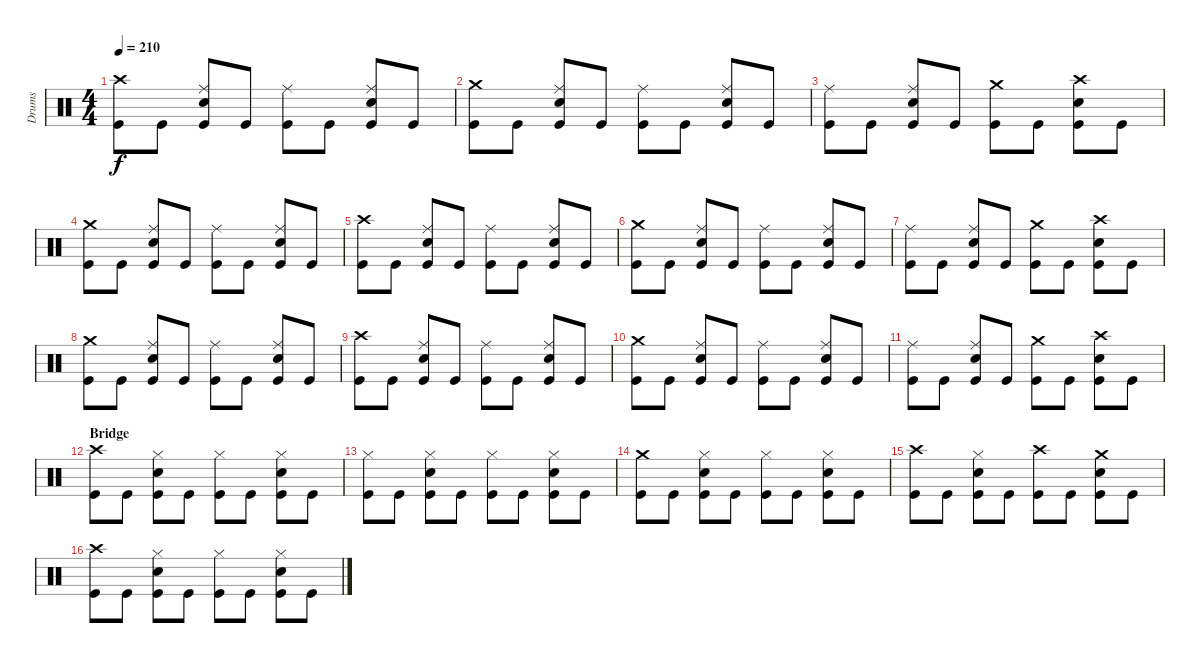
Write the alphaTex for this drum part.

\track ("Drums" "Drums") {instrument percussion}
\staff {score}
\articulation defaults
\ts (4 4)
\tempo 210
\clef neutral
\ks c
("Crash high (hit)" "Kick (hit)").8{dy f} "Kick (hit)".8 ("Ride (middle)" "Electric Snare (hit)" "Kick (hit)").8 "Kick (hit)".8 ("Ride (middle)" "Kick (hit)").8 "Kick (hit)".8 ("Ride (middle)" "Electric Snare (hit)" "Kick (hit)").8 "Kick (hit)".8 |
("Crash medium (hit)" "Kick (hit)").8 "Kick (hit)".8 ("Ride (middle)" "Electric Snare (hit)" "Kick (hit)").8 "Kick (hit)".8 ("Ride (middle)" "Kick (hit)").8 "Kick (hit)".8 ("Ride (middle)" "Electric Snare (hit)" "Kick (hit)").8 "Kick (hit)".8 |
("Ride (middle)" "Kick (hit)").8 "Kick (hit)".8 ("Ride (middle)" "Electric Snare (hit)" "Kick (hit)").8 "Kick (hit)".8 ("Crash medium (hit)" "Kick (hit)").8 "Kick (hit)".8 ("Crash high (hit)" "Electric Snare (hit)" "Kick (hit)").8 "Kick (hit)".8 |
("Crash medium (hit)" "Kick (hit)").8 "Kick (hit)".8 ("Ride (middle)" "Electric Snare (hit)" "Kick (hit)").8 "Kick (hit)".8 ("Ride (middle)" "Kick (hit)").8 "Kick (hit)".8 ("Ride (middle)" "Electric Snare (hit)" "Kick (hit)").8 "Kick (hit)".8 |
("Crash high (hit)" "Kick (hit)").8 "Kick (hit)".8 ("Ride (middle)" "Electric Snare (hit)" "Kick (hit)").8 "Kick (hit)".8 ("Ride (middle)" "Kick (hit)").8 "Kick (hit)".8 ("Ride (middle)" "Electric Snare (hit)" "Kick (hit)").8 "Kick (hit)".8 |
("Crash medium (hit)" "Kick (hit)").8 "Kick (hit)".8 ("Ride (middle)" "Electric Snare (hit)" "Kick (hit)").8 "Kick (hit)".8 ("Ride (middle)" "Kick (hit)").8 "Kick (hit)".8 ("Ride (middle)" "Electric Snare (hit)" "Kick (hit)").8 "Kick (hit)".8 |
("Ride (middle)" "Kick (hit)").8 "Kick (hit)".8 ("Ride (middle)" "Electric Snare (hit)" "Kick (hit)").8 "Kick (hit)".8 ("Crash medium (hit)" "Kick (hit)").8 "Kick (hit)".8 ("Crash high (hit)" "Electric Snare (hit)" "Kick (hit)").8 "Kick (hit)".8 |
("Crash medium (hit)" "Kick (hit)").8 "Kick (hit)".8 ("Ride (middle)" "Electric Snare (hit)" "Kick (hit)").8 "Kick (hit)".8 ("Ride (middle)" "Kick (hit)").8 "Kick (hit)".8 ("Ride (middle)" "Electric Snare (hit)" "Kick (hit)").8 "Kick (hit)".8 |
("Crash high (hit)" "Kick (hit)").8 "Kick (hit)".8 ("Ride (middle)" "Electric Snare (hit)" "Kick (hit)").8 "Kick (hit)".8 ("Ride (middle)" "Kick (hit)").8 "Kick (hit)".8 ("Ride (middle)" "Electric Snare (hit)" "Kick (hit)").8 "Kick (hit)".8 |
("Crash medium (hit)" "Kick (hit)").8 "Kick (hit)".8 ("Ride (middle)" "Electric Snare (hit)" "Kick (hit)").8 "Kick (hit)".8 ("Ride (middle)" "Kick (hit)").8 "Kick (hit)".8 ("Ride (middle)" "Electric Snare (hit)" "Kick (hit)").8 "Kick (hit)".8 |
("Ride (middle)" "Kick (hit)").8 "Kick (hit)".8 ("Ride (middle)" "Electric Snare (hit)" "Kick (hit)").8 "Kick (hit)".8 ("Crash medium (hit)" "Kick (hit)").8 "Kick (hit)".8 ("Crash high (hit)" "Electric Snare (hit)" "Kick (hit)").8 "Kick (hit)".8 |
\section ("" "Bridge")
("Crash high (hit)" "Kick (hit)").8 "Kick (hit)".8 ("Hi-Hat (closed)" "Electric Snare (hit)" "Kick (hit)").8 "Kick (hit)".8 ("Hi-Hat (closed)" "Kick (hit)").8 "Kick (hit)".8 ("Hi-Hat (closed)" "Electric Snare (hit)" "Kick (hit)").8 "Kick (hit)".8 |
("Hi-Hat (closed)" "Kick (hit)").8 "Kick (hit)".8 ("Hi-Hat (closed)" "Electric Snare (hit)" "Kick (hit)").8 "Kick (hit)".8 ("Hi-Hat (closed)" "Kick (hit)").8 "Kick (hit)".8 ("Hi-Hat (closed)" "Electric Snare (hit)" "Kick (hit)").8 "Kick (hit)".8 |
("Crash medium (hit)" "Kick (hit)").8 "Kick (hit)".8 ("Hi-Hat (closed)" "Electric Snare (hit)" "Kick (hit)").8 "Kick (hit)".8 ("Hi-Hat (closed)" "Kick (hit)").8 "Kick (hit)".8 ("Hi-Hat (closed)" "Electric Snare (hit)" "Kick (hit)").8 "Kick (hit)".8 |
("Crash high (hit)" "Kick (hit)").8 "Kick (hit)".8 ("Hi-Hat (closed)" "Electric Snare (hit)" "Kick (hit)").8 "Kick (hit)".8 ("Crash high (hit)" "Kick (hit)").8 "Kick (hit)".8 ("Crash medium (hit)" "Electric Snare (hit)" "Kick (hit)").8 "Kick (hit)".8 |
("Crash high (hit)" "Kick (hit)").8 "Kick (hit)".8 ("Hi-Hat (closed)" "Electric Snare (hit)" "Kick (hit)").8 "Kick (hit)".8 ("Hi-Hat (closed)" "Kick (hit)").8 "Kick (hit)".8 ("Hi-Hat (closed)" "Electric Snare (hit)" "Kick (hit)").8 "Kick (hit)".8
